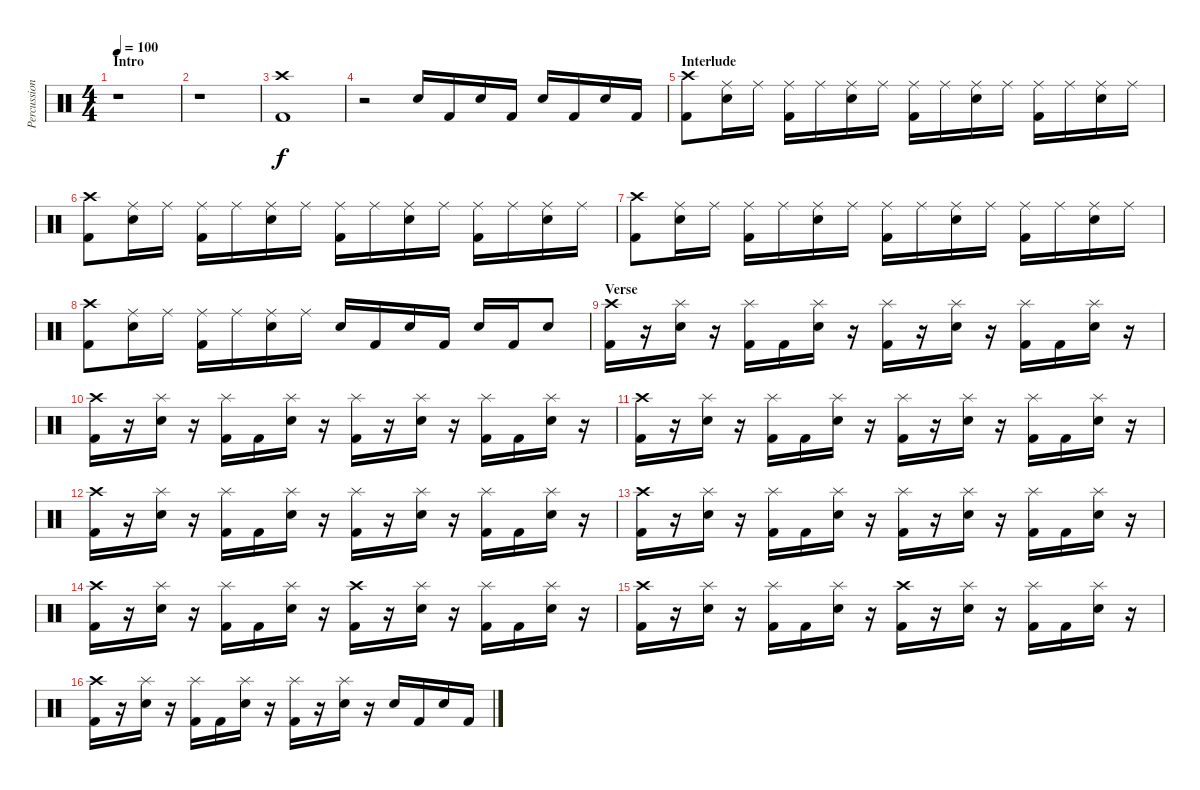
\track ("Percussion" "Percussion") {instrument percussion}
\staff {score}
\articulation defaults
\ts (4 4)
\section ("" "Intro")
\tempo 100
\clef neutral
\ks c
r.1{dy f} |
r.1 |
("Crash high (hit)" "Kick (hit) 2").1 |
r.2 "Snare (hit) 2".16 "Kick (hit) 2".16 "Snare (hit) 2".16 "Kick (hit) 2".16 "Snare (hit) 2".16 "Kick (hit) 2".16 "Snare (hit) 2".16 "Kick (hit) 2".16 |
\section ("" "Interlude")
("Crash high (hit)" "Kick (hit) 2").8 ("Ride (middle)" "Snare (hit) 2").16 "Ride (middle)".16 ("Ride (middle)" "Kick (hit) 2").16 "Ride (middle)".16 ("Ride (middle)" "Snare (hit) 2").16 "Ride (middle)".16 ("Ride (middle)" "Kick (hit) 2").16 "Ride (middle)".16 ("Ride (middle)" "Snare (hit) 2").16 "Ride (middle)".16 ("Ride (middle)" "Kick (hit) 2").16 "Ride (middle)".16 ("Ride (middle)" "Snare (hit) 2").16 "Ride (middle)".16 |
("Crash high (hit)" "Kick (hit) 2").8 ("Ride (middle)" "Snare (hit) 2").16 "Ride (middle)".16 ("Ride (middle)" "Kick (hit) 2").16 "Ride (middle)".16 ("Ride (middle)" "Snare (hit) 2").16 "Ride (middle)".16 ("Ride (middle)" "Kick (hit) 2").16 "Ride (middle)".16 ("Ride (middle)" "Snare (hit) 2").16 "Ride (middle)".16 ("Ride (middle)" "Kick (hit) 2").16 "Ride (middle)".16 ("Ride (middle)" "Snare (hit) 2").16 "Ride (middle)".16 |
("Crash high (hit)" "Kick (hit) 2").8 ("Ride (middle)" "Snare (hit) 2").16 "Ride (middle)".16 ("Ride (middle)" "Kick (hit) 2").16 "Ride (middle)".16 ("Ride (middle)" "Snare (hit) 2").16 "Ride (middle)".16 ("Ride (middle)" "Kick (hit) 2").16 "Ride (middle)".16 ("Ride (middle)" "Snare (hit) 2").16 "Ride (middle)".16 ("Ride (middle)" "Kick (hit) 2").16 "Ride (middle)".16 ("Ride (middle)" "Snare (hit) 2").16 "Ride (middle)".16 |
("Crash high (hit)" "Kick (hit) 2").8 ("Ride (middle)" "Snare (hit) 2").16 "Ride (middle)".16 ("Ride (middle)" "Kick (hit) 2").16 "Ride (middle)".16 ("Ride (middle)" "Snare (hit) 2").16 "Ride (middle)".16 "Snare (hit) 2".16 "Kick (hit) 2".16 "Snare (hit) 2".16 "Kick (hit) 2".16 "Snare (hit) 2".16 "Kick (hit) 2".16 "Snare (hit) 2".8 |
\section ("" "Verse")
("Crash high (hit)" "Kick (hit) 2").16 r.16 ("Splash (hit)" "Snare (hit) 2").16 r.16 ("Splash (hit)" "Kick (hit) 2").16 "Kick (hit) 2".16 ("Splash (hit)" "Snare (hit) 2").16 r.16 ("Splash (hit)" "Kick (hit) 2").16 r.16 ("Splash (hit)" "Snare (hit) 2").16 r.16 ("Splash (hit)" "Kick (hit) 2").16 "Kick (hit) 2".16 ("Splash (hit)" "Snare (hit) 2").16 r.16 |
("Crash high (hit)" "Kick (hit) 2").16 r.16 ("Splash (hit)" "Snare (hit) 2").16 r.16 ("Splash (hit)" "Kick (hit) 2").16 "Kick (hit) 2".16 ("Splash (hit)" "Snare (hit) 2").16 r.16 ("Splash (hit)" "Kick (hit) 2").16 r.16 ("Splash (hit)" "Snare (hit) 2").16 r.16 ("Splash (hit)" "Kick (hit) 2").16 "Kick (hit) 2".16 ("Splash (hit)" "Snare (hit) 2").16 r.16 |
("Crash high (hit)" "Kick (hit) 2").16 r.16 ("Splash (hit)" "Snare (hit) 2").16 r.16 ("Splash (hit)" "Kick (hit) 2").16 "Kick (hit) 2".16 ("Splash (hit)" "Snare (hit) 2").16 r.16 ("Splash (hit)" "Kick (hit) 2").16 r.16 ("Splash (hit)" "Snare (hit) 2").16 r.16 ("Splash (hit)" "Kick (hit) 2").16 "Kick (hit) 2".16 ("Splash (hit)" "Snare (hit) 2").16 r.16 |
("Crash high (hit)" "Kick (hit) 2").16 r.16 ("Splash (hit)" "Snare (hit) 2").16 r.16 ("Splash (hit)" "Kick (hit) 2").16 "Kick (hit) 2".16 ("Splash (hit)" "Snare (hit) 2").16 r.16 ("Splash (hit)" "Kick (hit) 2").16 r.16 ("Splash (hit)" "Snare (hit) 2").16 r.16 ("Splash (hit)" "Kick (hit) 2").16 "Kick (hit) 2".16 ("Splash (hit)" "Snare (hit) 2").16 r.16 |
("Crash high (hit)" "Kick (hit) 2").16 r.16 ("Splash (hit)" "Snare (hit) 2").16 r.16 ("Splash (hit)" "Kick (hit) 2").16 "Kick (hit) 2".16 ("Splash (hit)" "Snare (hit) 2").16 r.16 ("Splash (hit)" "Kick (hit) 2").16 r.16 ("Splash (hit)" "Snare (hit) 2").16 r.16 ("Splash (hit)" "Kick (hit) 2").16 "Kick (hit) 2".16 ("Splash (hit)" "Snare (hit) 2").16 r.16 |
("Crash high (hit)" "Kick (hit) 2").16 r.16 ("Splash (hit)" "Snare (hit) 2").16 r.16 ("Splash (hit)" "Kick (hit) 2").16 "Kick (hit) 2".16 ("Splash (hit)" "Snare (hit) 2").16 r.16 ("Crash high (hit)" "Kick (hit) 2").16 r.16 ("Splash (hit)" "Snare (hit) 2").16 r.16 ("Splash (hit)" "Kick (hit) 2").16 "Kick (hit) 2".16 ("Splash (hit)" "Snare (hit) 2").16 r.16 |
("Crash high (hit)" "Kick (hit) 2").16 r.16 ("Splash (hit)" "Snare (hit) 2").16 r.16 ("Splash (hit)" "Kick (hit) 2").16 "Kick (hit) 2".16 ("Splash (hit)" "Snare (hit) 2").16 r.16 ("Crash high (hit)" "Kick (hit) 2").16 r.16 ("Splash (hit)" "Snare (hit) 2").16 r.16 ("Splash (hit)" "Kick (hit) 2").16 "Kick (hit) 2".16 ("Splash (hit)" "Snare (hit) 2").16 r.16 |
("Crash high (hit)" "Kick (hit) 2").16 r.16 ("Splash (hit)" "Snare (hit) 2").16 r.16 ("Splash (hit)" "Kick (hit) 2").16 "Kick (hit) 2".16 ("Splash (hit)" "Snare (hit) 2").16 r.16 ("Splash (hit)" "Kick (hit) 2").16 r.16 ("Splash (hit)" "Snare (hit) 2").16 r.16 "Snare (hit) 2".16 "Kick (hit) 2".16 "Snare (hit) 2".16 "Kick (hit) 2".16
